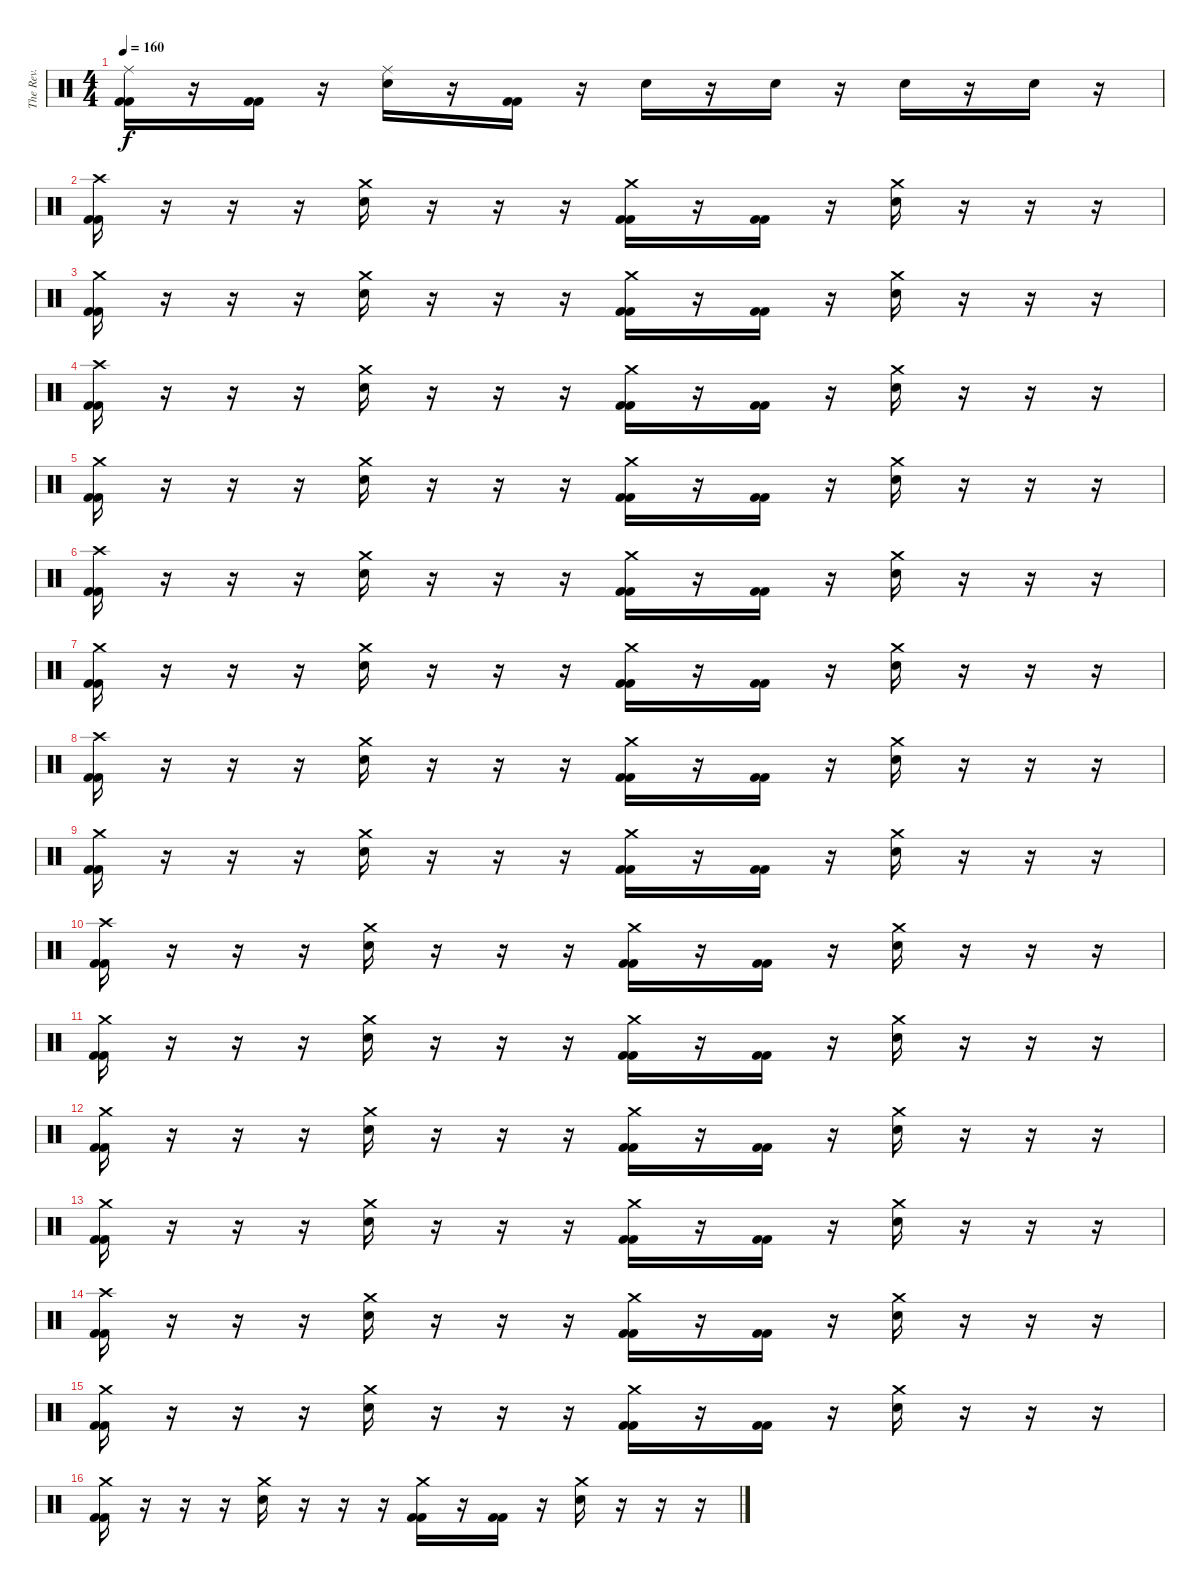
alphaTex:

\track ("The Rev." "The Rev.") {instrument percussion}
\staff {score}
\articulation defaults
\ts (4 4)
\tempo 160
\clef neutral
\ks c
("Ride (middle)" "Kick (hit) 2" "Kick (hit) 2").16{dy f} r.16 ("Kick (hit) 2" "Kick (hit) 2").16 r.16 ("Ride (middle)" "Electric Snare (hit)").16 r.16 ("Kick (hit) 2" "Kick (hit) 2").16 r.16 "Electric Snare (hit)".16 r.16 "Electric Snare (hit)".16 r.16 "Electric Snare (hit)".16 r.16 "Electric Snare (hit)".16 r.16 |
("Crash high (hit)" "Kick (hit) 2" "Kick (hit) 2").16 r.16 r.16 r.16 ("Crash medium (hit)" "Electric Snare (hit)").16 r.16 r.16 r.16 ("Crash medium (hit)" "Kick (hit) 2" "Kick (hit) 2").16 r.16 ("Kick (hit) 2" "Kick (hit) 2").16 r.16 ("Crash medium (hit)" "Electric Snare (hit)").16 r.16 r.16 r.16 |
("Crash medium (hit)" "Kick (hit) 2" "Kick (hit) 2").16 r.16 r.16 r.16 ("Crash medium (hit)" "Electric Snare (hit)").16 r.16 r.16 r.16 ("Crash medium (hit)" "Kick (hit) 2" "Kick (hit) 2").16 r.16 ("Kick (hit) 2" "Kick (hit) 2").16 r.16 ("Crash medium (hit)" "Electric Snare (hit)").16 r.16 r.16 r.16 |
("Crash high (hit)" "Kick (hit) 2" "Kick (hit) 2").16 r.16 r.16 r.16 ("Crash medium (hit)" "Electric Snare (hit)").16 r.16 r.16 r.16 ("Crash medium (hit)" "Kick (hit) 2" "Kick (hit) 2").16 r.16 ("Kick (hit) 2" "Kick (hit) 2").16 r.16 ("Crash medium (hit)" "Electric Snare (hit)").16 r.16 r.16 r.16 |
("Crash medium (hit)" "Kick (hit) 2" "Kick (hit) 2").16 r.16 r.16 r.16 ("Crash medium (hit)" "Electric Snare (hit)").16 r.16 r.16 r.16 ("Crash medium (hit)" "Kick (hit) 2" "Kick (hit) 2").16 r.16 ("Kick (hit) 2" "Kick (hit) 2").16 r.16 ("Crash medium (hit)" "Electric Snare (hit)").16 r.16 r.16 r.16 |
("Crash high (hit)" "Kick (hit) 2" "Kick (hit) 2").16 r.16 r.16 r.16 ("Crash medium (hit)" "Electric Snare (hit)").16 r.16 r.16 r.16 ("Crash medium (hit)" "Kick (hit) 2" "Kick (hit) 2").16 r.16 ("Kick (hit) 2" "Kick (hit) 2").16 r.16 ("Crash medium (hit)" "Electric Snare (hit)").16 r.16 r.16 r.16 |
("Crash medium (hit)" "Kick (hit) 2" "Kick (hit) 2").16 r.16 r.16 r.16 ("Crash medium (hit)" "Electric Snare (hit)").16 r.16 r.16 r.16 ("Crash medium (hit)" "Kick (hit) 2" "Kick (hit) 2").16 r.16 ("Kick (hit) 2" "Kick (hit) 2").16 r.16 ("Crash medium (hit)" "Electric Snare (hit)").16 r.16 r.16 r.16 |
("Crash high (hit)" "Kick (hit) 2" "Kick (hit) 2").16 r.16 r.16 r.16 ("Crash medium (hit)" "Electric Snare (hit)").16 r.16 r.16 r.16 ("Crash medium (hit)" "Kick (hit) 2" "Kick (hit) 2").16 r.16 ("Kick (hit) 2" "Kick (hit) 2").16 r.16 ("Crash medium (hit)" "Electric Snare (hit)").16 r.16 r.16 r.16 |
("Crash medium (hit)" "Kick (hit) 2" "Kick (hit) 2").16 r.16 r.16 r.16 ("Crash medium (hit)" "Electric Snare (hit)").16 r.16 r.16 r.16 ("Crash medium (hit)" "Kick (hit) 2" "Kick (hit) 2").16 r.16 ("Kick (hit) 2" "Kick (hit) 2").16 r.16 ("Crash medium (hit)" "Electric Snare (hit)").16 r.16 r.16 r.16 |
("Crash high (hit)" "Kick (hit) 2" "Kick (hit) 2").16 r.16 r.16 r.16 ("Crash medium (hit)" "Electric Snare (hit)").16 r.16 r.16 r.16 ("Crash medium (hit)" "Kick (hit) 2" "Kick (hit) 2").16 r.16 ("Kick (hit) 2" "Kick (hit) 2").16 r.16 ("Crash medium (hit)" "Electric Snare (hit)").16 r.16 r.16 r.16 |
("Crash medium (hit)" "Kick (hit) 2" "Kick (hit) 2").16 r.16 r.16 r.16 ("Crash medium (hit)" "Electric Snare (hit)").16 r.16 r.16 r.16 ("Crash medium (hit)" "Kick (hit) 2" "Kick (hit) 2").16 r.16 ("Kick (hit) 2" "Kick (hit) 2").16 r.16 ("Crash medium (hit)" "Electric Snare (hit)").16 r.16 r.16 r.16 |
("Crash medium (hit)" "Kick (hit) 2" "Kick (hit) 2").16 r.16 r.16 r.16 ("Crash medium (hit)" "Electric Snare (hit)").16 r.16 r.16 r.16 ("Crash medium (hit)" "Kick (hit) 2" "Kick (hit) 2").16 r.16 ("Kick (hit) 2" "Kick (hit) 2").16 r.16 ("Crash medium (hit)" "Electric Snare (hit)").16 r.16 r.16 r.16 |
("Crash medium (hit)" "Kick (hit) 2" "Kick (hit) 2").16 r.16 r.16 r.16 ("Crash medium (hit)" "Electric Snare (hit)").16 r.16 r.16 r.16 ("Crash medium (hit)" "Kick (hit) 2" "Kick (hit) 2").16 r.16 ("Kick (hit) 2" "Kick (hit) 2").16 r.16 ("Crash medium (hit)" "Electric Snare (hit)").16 r.16 r.16 r.16 |
("Crash high (hit)" "Kick (hit) 2" "Kick (hit) 2").16 r.16 r.16 r.16 ("Crash medium (hit)" "Electric Snare (hit)").16 r.16 r.16 r.16 ("Crash medium (hit)" "Kick (hit) 2" "Kick (hit) 2").16 r.16 ("Kick (hit) 2" "Kick (hit) 2").16 r.16 ("Crash medium (hit)" "Electric Snare (hit)").16 r.16 r.16 r.16 |
("Crash medium (hit)" "Kick (hit) 2" "Kick (hit) 2").16 r.16 r.16 r.16 ("Crash medium (hit)" "Electric Snare (hit)").16 r.16 r.16 r.16 ("Crash medium (hit)" "Kick (hit) 2" "Kick (hit) 2").16 r.16 ("Kick (hit) 2" "Kick (hit) 2").16 r.16 ("Crash medium (hit)" "Electric Snare (hit)").16 r.16 r.16 r.16 |
("Crash medium (hit)" "Kick (hit) 2" "Kick (hit) 2").16 r.16 r.16 r.16 ("Crash medium (hit)" "Electric Snare (hit)").16 r.16 r.16 r.16 ("Crash medium (hit)" "Kick (hit) 2" "Kick (hit) 2").16 r.16 ("Kick (hit) 2" "Kick (hit) 2").16 r.16 ("Crash medium (hit)" "Electric Snare (hit)").16 r.16 r.16 r.16
